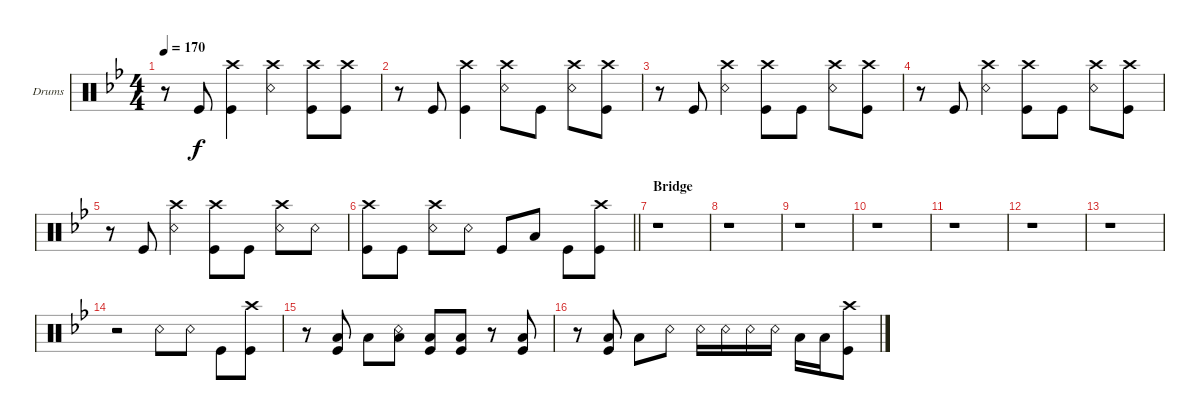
\defaultSystemsLayout 4
\bracketExtendMode groupsimilarinstruments
\firstSystemTrackNameOrientation horizontal
\otherSystemsTrackNameOrientation horizontal
\track ("Drums" "Drums") {instrument percussion}
\staff {score}
\articulation defaults
\ts (4 4)
\tempo 170
\clef neutral
\ks bb
r.8{dy f} "Kick (hit)".8 ("Kick (hit)" "Crash high (hit)").4 ("Snare (rim shot)" "Crash high (hit)").4 ("Kick (hit)" "Crash high (hit)").8 ("Kick (hit)" "Crash high (hit)").8 |
r.8 "Kick (hit)".8 ("Kick (hit)" "Crash high (hit)").4 ("Snare (rim shot)" "Crash high (hit)").8 "Kick (hit)".8 ("Snare (rim shot)" "Crash high (hit)").8 ("Kick (hit)" "Crash high (hit)").8 |
r.8 "Kick (hit)".8 ("Snare (rim shot)" "Crash high (hit)").4 ("Kick (hit)" "Crash high (hit)").8 "Kick (hit)".8 ("Snare (rim shot)" "Crash high (hit)").8 ("Kick (hit)" "Crash high (hit)").8 |
r.8 "Kick (hit)".8 ("Snare (rim shot)" "Crash high (hit)").4 ("Kick (hit)" "Crash high (hit)").8 "Kick (hit)".8 ("Snare (rim shot)" "Crash high (hit)").8 ("Kick (hit)" "Crash high (hit)").8 |
r.8 "Kick (hit)".8 ("Snare (rim shot)" "Crash high (hit)").4 ("Kick (hit)" "Crash high (hit)").8 "Kick (hit)".8 ("Snare (rim shot)" "Crash high (hit)").8 "Snare (rim shot)".8 |
\barLineRight lightlight
("Kick (hit)" "Crash high (hit)").8 "Kick (hit)".8 ("Snare (rim shot)" "Crash high (hit)").8 "Snare (rim shot)".8 "Kick (hit)".8 "Low Tom (hit)".8 "Kick (hit)".8 ("Kick (hit)" "Crash high (hit)").8 |
\section ("" "Bridge")
r.1 |
r.1 |
r.1 |
r.1 |
r.1 |
r.1 |
r.1 |
r.2 "Snare (rim shot)".8 "Snare (rim shot)".8 "Kick (hit)".8 ("Kick (hit)" "Crash high (hit)").8 |
r.8 ("Kick (hit)" "Low Tom (hit)").8 "Low Tom (hit)".8 ("Snare (rim shot)" "Low Tom (hit)").8 ("Kick (hit)" "Low Tom (hit)").8 ("Kick (hit)" "Low Tom (hit)").8 r.8 ("Kick (hit)" "Low Tom (hit)").8 |
r.8 ("Kick (hit)" "Low Tom (hit)").8 "Low Tom (hit)".8 "Snare (rim shot)".8 "Snare (rim shot)".16 "Snare (rim shot)".16 "Snare (rim shot)".16 "Snare (rim shot)".16 "Low Tom (hit)".16 "Low Tom (hit)".16 ("Kick (hit)" "Crash high (hit)").8
